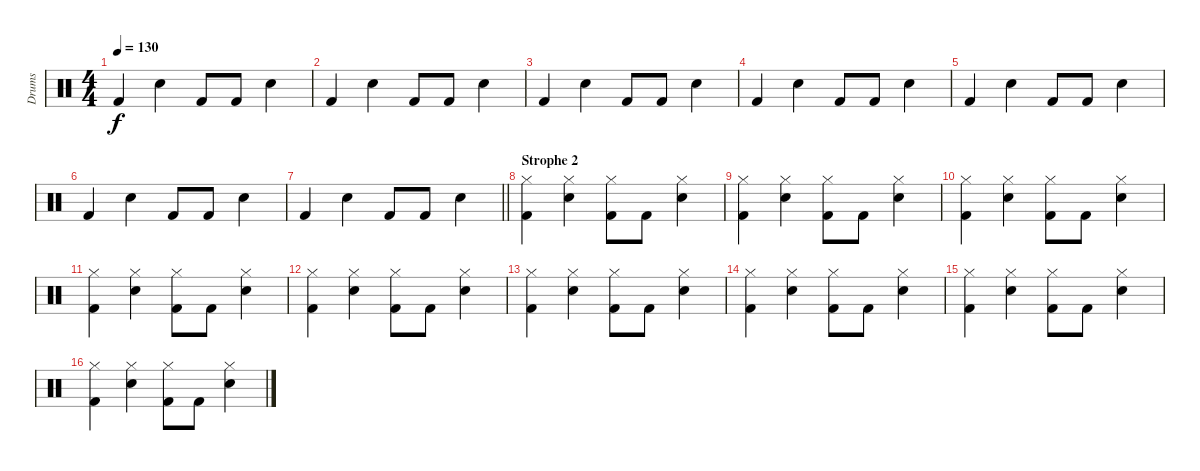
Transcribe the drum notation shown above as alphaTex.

\track ("Drums" "Drums") {instrument percussion}
\staff {score}
\articulation defaults
\ts (4 4)
\tempo 130
\clef neutral
\ks c "Kick (hit) 2".4{dy f} "Snare (hit) 2".4 "Kick (hit) 2".8 "Kick (hit) 2".8 "Snare (hit) 2".4
|
"Kick (hit) 2".4 "Snare (hit) 2".4 "Kick (hit) 2".8 "Kick (hit) 2".8 "Snare (hit) 2".4 |
"Kick (hit) 2".4 "Snare (hit) 2".4 "Kick (hit) 2".8 "Kick (hit) 2".8 "Snare (hit) 2".4 |
"Kick (hit) 2".4 "Snare (hit) 2".4 "Kick (hit) 2".8 "Kick (hit) 2".8 "Snare (hit) 2".4 |
"Kick (hit) 2".4 "Snare (hit) 2".4 "Kick (hit) 2".8 "Kick (hit) 2".8 "Snare (hit) 2".4 |
"Kick (hit) 2".4 "Snare (hit) 2".4 "Kick (hit) 2".8 "Kick (hit) 2".8 "Snare (hit) 2".4 |
\barLineRight lightlight "Kick (hit) 2".4 "Snare (hit) 2".4 "Kick (hit) 2".8 "Kick (hit) 2".8 "Snare (hit) 2".4
|
\section ("" "Strophe 2")
("Hi-Hat (closed)" "Kick (hit) 2").4 ("Hi-Hat (closed)" "Snare (hit) 2").4 ("Hi-Hat (closed)" "Kick (hit) 2").8 "Kick (hit) 2".8 ("Hi-Hat (closed)" "Snare (hit) 2").4 |
("Hi-Hat (closed)" "Kick (hit) 2").4 ("Hi-Hat (closed)" "Snare (hit) 2").4 ("Hi-Hat (closed)" "Kick (hit) 2").8 "Kick (hit) 2".8 ("Hi-Hat (closed)" "Snare (hit) 2").4 |
("Hi-Hat (closed)" "Kick (hit) 2").4 ("Hi-Hat (closed)" "Snare (hit) 2").4 ("Hi-Hat (closed)" "Kick (hit) 2").8 "Kick (hit) 2".8 ("Hi-Hat (closed)" "Snare (hit) 2").4 |
("Hi-Hat (closed)" "Kick (hit) 2").4 ("Hi-Hat (closed)" "Snare (hit) 2").4 ("Hi-Hat (closed)" "Kick (hit) 2").8 "Kick (hit) 2".8 ("Hi-Hat (closed)" "Snare (hit) 2").4 |
("Hi-Hat (closed)" "Kick (hit) 2").4 ("Hi-Hat (closed)" "Snare (hit) 2").4 ("Hi-Hat (closed)" "Kick (hit) 2").8 "Kick (hit) 2".8 ("Hi-Hat (closed)" "Snare (hit) 2").4 |
("Hi-Hat (closed)" "Kick (hit) 2").4 ("Hi-Hat (closed)" "Snare (hit) 2").4 ("Hi-Hat (closed)" "Kick (hit) 2").8 "Kick (hit) 2".8 ("Hi-Hat (closed)" "Snare (hit) 2").4 |
("Hi-Hat (closed)" "Kick (hit) 2").4 ("Hi-Hat (closed)" "Snare (hit) 2").4 ("Hi-Hat (closed)" "Kick (hit) 2").8 "Kick (hit) 2".8 ("Hi-Hat (closed)" "Snare (hit) 2").4 |
("Hi-Hat (closed)" "Kick (hit) 2").4 ("Hi-Hat (closed)" "Snare (hit) 2").4 ("Hi-Hat (closed)" "Kick (hit) 2").8 "Kick (hit) 2".8 ("Hi-Hat (closed)" "Snare (hit) 2").4 |
("Hi-Hat (closed)" "Kick (hit) 2").4 ("Hi-Hat (closed)" "Snare (hit) 2").4 ("Hi-Hat (closed)" "Kick (hit) 2").8 "Kick (hit) 2".8 ("Hi-Hat (closed)" "Snare (hit) 2").4
